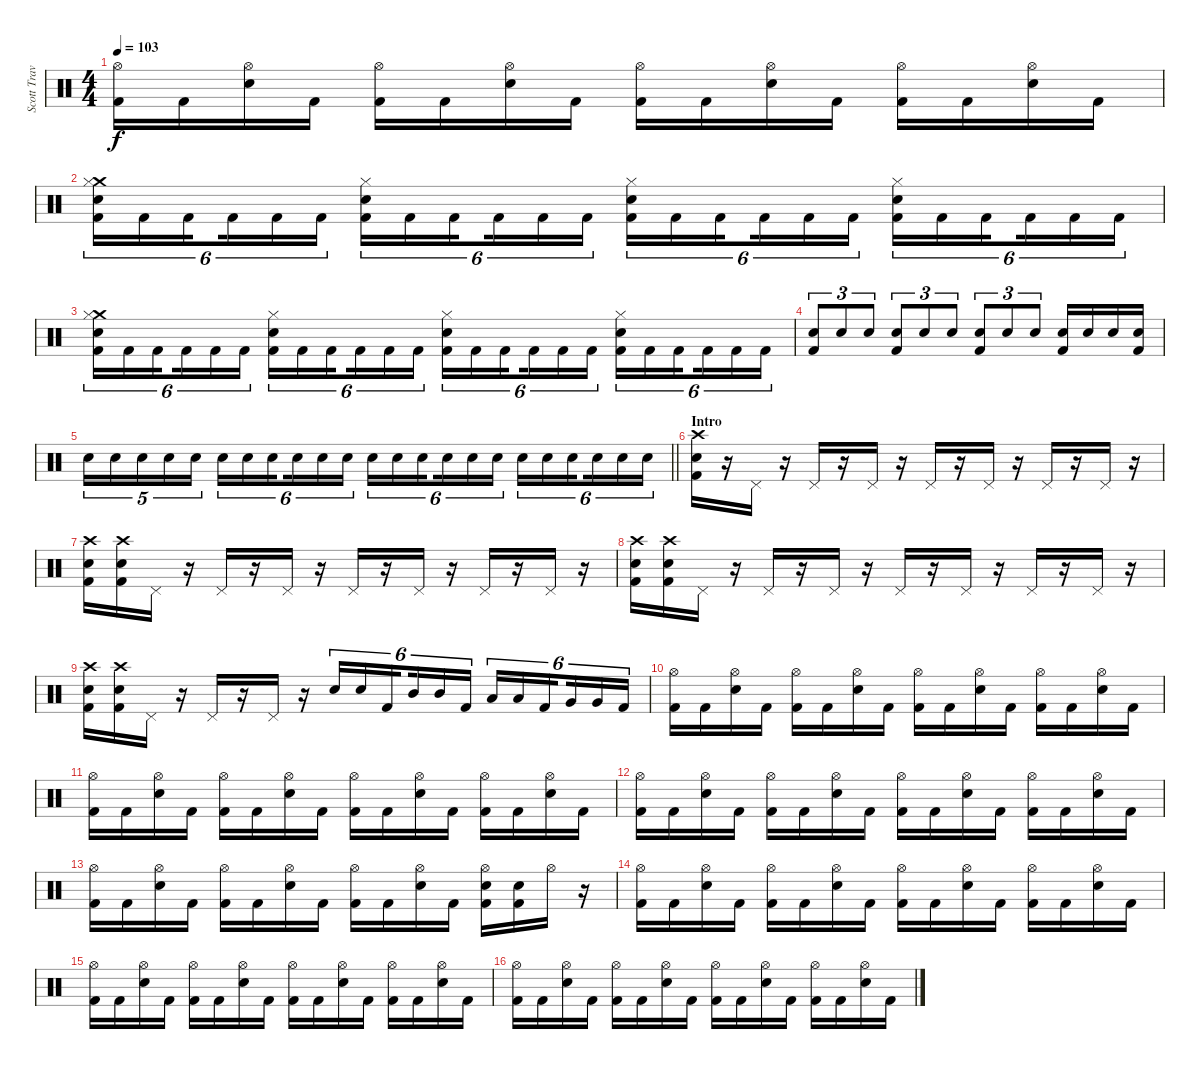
\track ("Scott Travis" "Scott Trav") {instrument percussion}
\staff {score}
\articulation defaults
\ts (4 4)
\tempo 103
\clef neutral
\ks c
("Hi-Hat (open)" "Kick (hit) 2").16{dy f} "Kick (hit) 2".16 ("Hi-Hat (open)" "Snare (hit) 2").16 "Kick (hit) 2".16 ("Hi-Hat (open)" "Kick (hit) 2").16 "Kick (hit) 2".16 ("Hi-Hat (open)" "Snare (hit) 2").16 "Kick (hit) 2".16 ("Hi-Hat (open)" "Kick (hit) 2").16 "Kick (hit) 2".16 ("Hi-Hat (open)" "Snare (hit) 2").16 "Kick (hit) 2".16 ("Hi-Hat (open)" "Kick (hit) 2").16 "Kick (hit) 2".16 ("Hi-Hat (open)" "Snare (hit) 2").16 "Kick (hit) 2".16 |
("Crash medium (hit)" "Hi-Hat (closed)" "Snare (hit) 2" "Kick (hit) 2").16{tu (6 4)} "Kick (hit) 2".16{tu (6 4)} "Kick (hit) 2".16{tu (6 4) beam splitsecondary} "Kick (hit) 2".16{tu (6 4)} "Kick (hit) 2".16{tu (6 4)} "Kick (hit) 2".16{tu (6 4)} ("Hi-Hat (closed)" "Snare (hit) 2" "Kick (hit) 2").16{tu (6 4)} "Kick (hit) 2".16{tu (6 4)} "Kick (hit) 2".16{tu (6 4) beam splitsecondary} "Kick (hit) 2".16{tu (6 4)} "Kick (hit) 2".16{tu (6 4)} "Kick (hit) 2".16{tu (6 4)} ("Hi-Hat (closed)" "Snare (hit) 2" "Kick (hit) 2").16{tu (6 4)} "Kick (hit) 2".16{tu (6 4)} "Kick (hit) 2".16{tu (6 4) beam splitsecondary} "Kick (hit) 2".16{tu (6 4)} "Kick (hit) 2".16{tu (6 4)} "Kick (hit) 2".16{tu (6 4)} ("Hi-Hat (closed)" "Snare (hit) 2" "Kick (hit) 2").16{tu (6 4)} "Kick (hit) 2".16{tu (6 4)} "Kick (hit) 2".16{tu (6 4) beam splitsecondary} "Kick (hit) 2".16{tu (6 4)} "Kick (hit) 2".16{tu (6 4)} "Kick (hit) 2".16{tu (6 4)} |
("Crash medium (hit)" "Hi-Hat (closed)" "Snare (hit) 2" "Kick (hit) 2").16{tu (6 4)} "Kick (hit) 2".16{tu (6 4)} "Kick (hit) 2".16{tu (6 4) beam splitsecondary} "Kick (hit) 2".16{tu (6 4)} "Kick (hit) 2".16{tu (6 4)} "Kick (hit) 2".16{tu (6 4)} ("Hi-Hat (closed)" "Snare (hit) 2" "Kick (hit) 2").16{tu (6 4)} "Kick (hit) 2".16{tu (6 4)} "Kick (hit) 2".16{tu (6 4) beam splitsecondary} "Kick (hit) 2".16{tu (6 4)} "Kick (hit) 2".16{tu (6 4)} "Kick (hit) 2".16{tu (6 4)} ("Hi-Hat (closed)" "Snare (hit) 2" "Kick (hit) 2").16{tu (6 4)} "Kick (hit) 2".16{tu (6 4)} "Kick (hit) 2".16{tu (6 4) beam splitsecondary} "Kick (hit) 2".16{tu (6 4)} "Kick (hit) 2".16{tu (6 4)} "Kick (hit) 2".16{tu (6 4)} ("Hi-Hat (closed)" "Snare (hit) 2" "Kick (hit) 2").16{tu (6 4)} "Kick (hit) 2".16{tu (6 4)} "Kick (hit) 2".16{tu (6 4) beam splitsecondary} "Kick (hit) 2".16{tu (6 4)} "Kick (hit) 2".16{tu (6 4)} "Kick (hit) 2".16{tu (6 4)} |
("Kick (hit) 2" "Snare (hit) 2").8{tu (3 2)} "Snare (hit) 2".8{tu (3 2)} "Snare (hit) 2".8{tu (3 2)} ("Kick (hit) 2" "Snare (hit) 2").8{tu (3 2)} "Snare (hit) 2".8{tu (3 2)} "Snare (hit) 2".8{tu (3 2)} ("Kick (hit) 2" "Snare (hit) 2").8{tu (3 2)} "Snare (hit) 2".8{tu (3 2)} "Snare (hit) 2".8{tu (3 2)} ("Kick (hit) 2" "Snare (hit) 2").16 "Snare (hit) 2".16 "Snare (hit) 2".16 ("Kick (hit) 2" "Snare (hit) 2").16 |
\barLineRight lightlight "Snare (hit) 2".16{tu (5 4)} "Snare (hit) 2".16{tu (5 4)} "Snare (hit) 2".16{tu (5 4)} "Snare (hit) 2".16{tu (5 4)} "Snare (hit) 2".16{tu (5 4)} "Snare (hit) 2".16{tu (6 4)} "Snare (hit) 2".16{tu (6 4)} "Snare (hit) 2".16{tu (6 4) beam splitsecondary} "Snare (hit) 2".16{tu (6 4)} "Snare (hit) 2".16{tu (6 4)} "Snare (hit) 2".16{tu (6 4)} "Snare (hit) 2".16{tu (6 4)} "Snare (hit) 2".16{tu (6 4)} "Snare (hit) 2".16{tu (6 4) beam splitsecondary} "Snare (hit) 2".16{tu (6 4)} "Snare (hit) 2".16{tu (6 4)} "Snare (hit) 2".16{tu (6 4)} "Snare (hit) 2".16{tu (6 4)} "Snare (hit) 2".16{tu (6 4)} "Snare (hit) 2".16{tu (6 4) beam splitsecondary} "Snare (hit) 2".16{tu (6 4)} "Snare (hit) 2".16{tu (6 4)} "Snare (hit) 2".16{tu (6 4)}
|
\section ("" "Intro")
("Snare (hit) 2" "Crash high (hit)" "Kick (hit) 2").16 r.16 "Pedal Hi-Hat (hit)".16 r.16 "Pedal Hi-Hat (hit)".16 r.16 "Pedal Hi-Hat (hit)".16 r.16 "Pedal Hi-Hat (hit)".16 r.16 "Pedal Hi-Hat (hit)".16 r.16 "Pedal Hi-Hat (hit)".16 r.16 "Pedal Hi-Hat (hit)".16 r.16 |
("Crash high (hit)" "Kick (hit) 2" "Snare (hit) 2").16 ("Crash high (hit)" "Kick (hit) 2" "Snare (hit) 2").16 "Pedal Hi-Hat (hit)".16 r.16 "Pedal Hi-Hat (hit)".16 r.16 "Pedal Hi-Hat (hit)".16 r.16 "Pedal Hi-Hat (hit)".16 r.16 "Pedal Hi-Hat (hit)".16 r.16 "Pedal Hi-Hat (hit)".16 r.16 "Pedal Hi-Hat (hit)".16 r.16 |
("Crash high (hit)" "Kick (hit) 2" "Snare (hit) 2").16 ("Crash high (hit)" "Kick (hit) 2" "Snare (hit) 2").16 "Pedal Hi-Hat (hit)".16 r.16 "Pedal Hi-Hat (hit)".16 r.16 "Pedal Hi-Hat (hit)".16 r.16 "Pedal Hi-Hat (hit)".16 r.16 "Pedal Hi-Hat (hit)".16 r.16 "Pedal Hi-Hat (hit)".16 r.16 "Pedal Hi-Hat (hit)".16 r.16 |
("Crash high (hit)" "Kick (hit) 2" "Snare (hit) 2").16 ("Crash high (hit)" "Kick (hit) 2" "Snare (hit) 2").16 "Pedal Hi-Hat (hit)".16 r.16 "Pedal Hi-Hat (hit)".16 r.16 "Pedal Hi-Hat (hit)".16 r.16 "Snare (hit) 2".16{tu (6 4)} "Snare (hit) 2".16{tu (6 4)} "Kick (hit) 2".16{tu (6 4) beam splitsecondary} "Mid Tom (hit)".16{tu (6 4)} "Mid Tom (hit)".16{tu (6 4)} "Kick (hit) 2".16{tu (6 4)} "Low Tom (hit)".16{tu (6 4)} "Low Tom (hit)".16{tu (6 4)} "Kick (hit) 2".16{tu (6 4) beam splitsecondary} "Very Low Tom (hit)".16{tu (6 4)} "Very Low Tom (hit)".16{tu (6 4)} "Kick (hit) 2".16{tu (6 4)} |
("Hi-Hat (open)" "Kick (hit) 2").16 "Kick (hit) 2".16 ("Hi-Hat (open)" "Snare (hit) 2").16 "Kick (hit) 2".16 ("Hi-Hat (open)" "Kick (hit) 2").16 "Kick (hit) 2".16 ("Hi-Hat (open)" "Snare (hit) 2").16 "Kick (hit) 2".16 ("Hi-Hat (open)" "Kick (hit) 2").16 "Kick (hit) 2".16 ("Hi-Hat (open)" "Snare (hit) 2").16 "Kick (hit) 2".16 ("Hi-Hat (open)" "Kick (hit) 2").16 "Kick (hit) 2".16 ("Hi-Hat (open)" "Snare (hit) 2").16 "Kick (hit) 2".16 |
("Hi-Hat (open)" "Kick (hit) 2").16 "Kick (hit) 2".16 ("Hi-Hat (open)" "Snare (hit) 2").16 "Kick (hit) 2".16 ("Hi-Hat (open)" "Kick (hit) 2").16 "Kick (hit) 2".16 ("Hi-Hat (open)" "Snare (hit) 2").16 "Kick (hit) 2".16 ("Hi-Hat (open)" "Kick (hit) 2").16 "Kick (hit) 2".16 ("Hi-Hat (open)" "Snare (hit) 2").16 "Kick (hit) 2".16 ("Hi-Hat (open)" "Kick (hit) 2").16 "Kick (hit) 2".16 ("Hi-Hat (open)" "Snare (hit) 2").16 "Kick (hit) 2".16 |
("Hi-Hat (open)" "Kick (hit) 2").16 "Kick (hit) 2".16 ("Hi-Hat (open)" "Snare (hit) 2").16 "Kick (hit) 2".16 ("Hi-Hat (open)" "Kick (hit) 2").16 "Kick (hit) 2".16 ("Hi-Hat (open)" "Snare (hit) 2").16 "Kick (hit) 2".16 ("Hi-Hat (open)" "Kick (hit) 2").16 "Kick (hit) 2".16 ("Hi-Hat (open)" "Snare (hit) 2").16 "Kick (hit) 2".16 ("Hi-Hat (open)" "Kick (hit) 2").16 "Kick (hit) 2".16 ("Hi-Hat (open)" "Snare (hit) 2").16 "Kick (hit) 2".16 |
("Hi-Hat (open)" "Kick (hit) 2").16 "Kick (hit) 2".16 ("Hi-Hat (open)" "Snare (hit) 2").16 "Kick (hit) 2".16 ("Hi-Hat (open)" "Kick (hit) 2").16 "Kick (hit) 2".16 ("Hi-Hat (open)" "Snare (hit) 2").16 "Kick (hit) 2".16 ("Hi-Hat (open)" "Kick (hit) 2").16 "Kick (hit) 2".16 ("Hi-Hat (open)" "Snare (hit) 2").16 "Kick (hit) 2".16 ("Hi-Hat (open)" "Snare (hit) 2" "Kick (hit) 2").16 ("Snare (hit) 2" "Kick (hit) 2").16 "Hi-Hat (open)".16 r.16 |
("Hi-Hat (open)" "Kick (hit) 2").16 "Kick (hit) 2".16 ("Hi-Hat (open)" "Snare (hit) 2").16 "Kick (hit) 2".16 ("Hi-Hat (open)" "Kick (hit) 2").16 "Kick (hit) 2".16 ("Hi-Hat (open)" "Snare (hit) 2").16 "Kick (hit) 2".16 ("Hi-Hat (open)" "Kick (hit) 2").16 "Kick (hit) 2".16 ("Hi-Hat (open)" "Snare (hit) 2").16 "Kick (hit) 2".16 ("Hi-Hat (open)" "Kick (hit) 2").16 "Kick (hit) 2".16 ("Hi-Hat (open)" "Snare (hit) 2").16 "Kick (hit) 2".16 |
("Hi-Hat (open)" "Kick (hit) 2").16 "Kick (hit) 2".16 ("Hi-Hat (open)" "Snare (hit) 2").16 "Kick (hit) 2".16 ("Hi-Hat (open)" "Kick (hit) 2").16 "Kick (hit) 2".16 ("Hi-Hat (open)" "Snare (hit) 2").16 "Kick (hit) 2".16 ("Hi-Hat (open)" "Kick (hit) 2").16 "Kick (hit) 2".16 ("Hi-Hat (open)" "Snare (hit) 2").16 "Kick (hit) 2".16 ("Hi-Hat (open)" "Kick (hit) 2").16 "Kick (hit) 2".16 ("Hi-Hat (open)" "Snare (hit) 2").16 "Kick (hit) 2".16 |
("Hi-Hat (open)" "Kick (hit) 2").16 "Kick (hit) 2".16 ("Hi-Hat (open)" "Snare (hit) 2").16 "Kick (hit) 2".16 ("Hi-Hat (open)" "Kick (hit) 2").16 "Kick (hit) 2".16 ("Hi-Hat (open)" "Snare (hit) 2").16 "Kick (hit) 2".16 ("Hi-Hat (open)" "Kick (hit) 2").16 "Kick (hit) 2".16 ("Hi-Hat (open)" "Snare (hit) 2").16 "Kick (hit) 2".16 ("Hi-Hat (open)" "Kick (hit) 2").16 "Kick (hit) 2".16 ("Hi-Hat (open)" "Snare (hit) 2").16 "Kick (hit) 2".16
